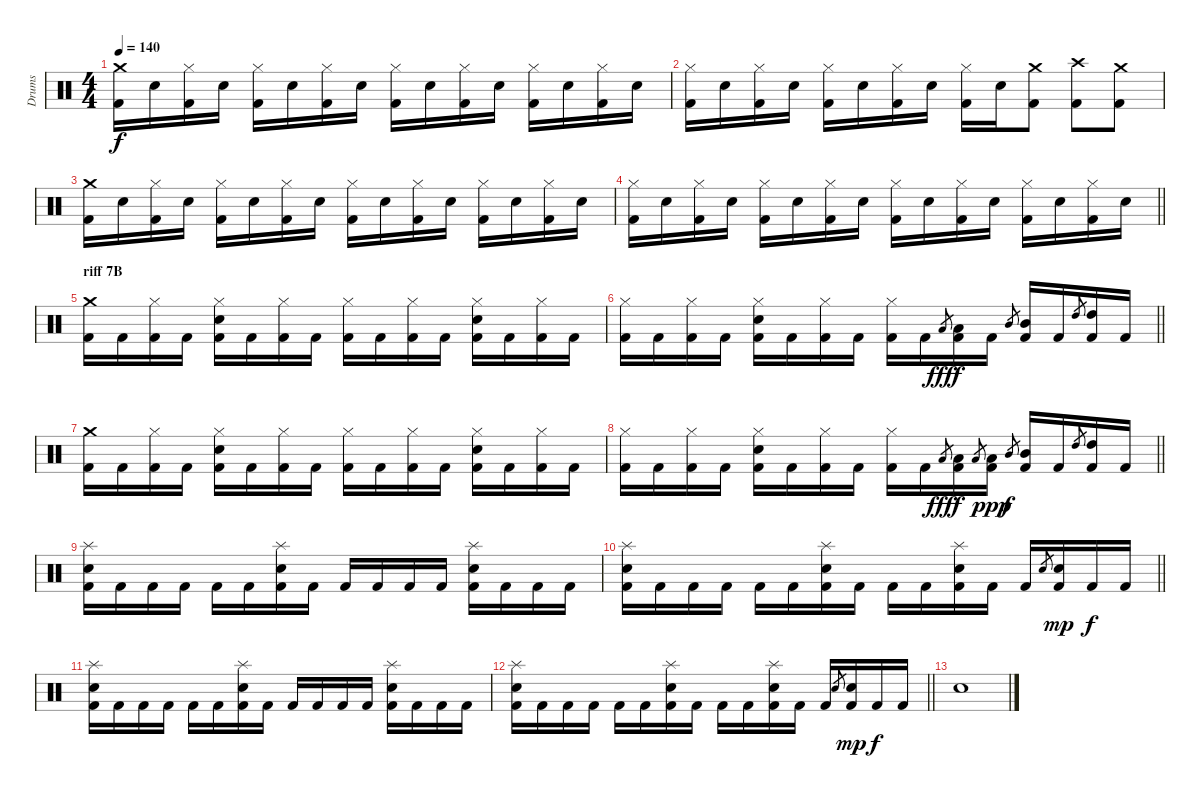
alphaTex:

\track ("Drums" "Drums") {instrument percussion}
\staff {score}
\articulation defaults
\ts (4 4)
\tempo 140
\clef neutral
\ks c
("Kick (hit) 2" "Crash medium (hit)").16{dy f} "Snare (hit) 2".16 ("Kick (hit) 2" "Hi-Hat (closed)").16 "Snare (hit) 2".16 ("Kick (hit) 2" "Hi-Hat (closed)").16 "Snare (hit) 2".16 ("Kick (hit) 2" "Hi-Hat (closed)").16 "Snare (hit) 2".16 ("Kick (hit) 2" "Hi-Hat (closed)").16 "Snare (hit) 2".16 ("Kick (hit) 2" "Hi-Hat (closed)").16 "Snare (hit) 2".16 ("Kick (hit) 2" "Hi-Hat (closed)").16 "Snare (hit) 2".16 ("Kick (hit) 2" "Hi-Hat (closed)").16 "Snare (hit) 2".16 |
("Kick (hit) 2" "Hi-Hat (closed)").16 "Snare (hit) 2".16 ("Kick (hit) 2" "Hi-Hat (closed)").16 "Snare (hit) 2".16 ("Kick (hit) 2" "Hi-Hat (closed)").16 "Snare (hit) 2".16 ("Kick (hit) 2" "Hi-Hat (closed)").16 "Snare (hit) 2".16 ("Kick (hit) 2" "Hi-Hat (closed)").16 "Snare (hit) 2".16 ("Kick (hit) 2" "Crash medium (hit)").8 ("Kick (hit) 2" "Crash high (hit)").8 ("Kick (hit) 2" "Crash medium (hit)").8 |
("Kick (hit) 2" "Crash medium (hit)").16 "Snare (hit) 2".16 ("Kick (hit) 2" "Hi-Hat (closed)").16 "Snare (hit) 2".16 ("Kick (hit) 2" "Hi-Hat (closed)").16 "Snare (hit) 2".16 ("Kick (hit) 2" "Hi-Hat (closed)").16 "Snare (hit) 2".16 ("Kick (hit) 2" "Hi-Hat (closed)").16 "Snare (hit) 2".16 ("Kick (hit) 2" "Hi-Hat (closed)").16 "Snare (hit) 2".16 ("Kick (hit) 2" "Hi-Hat (closed)").16 "Snare (hit) 2".16 ("Kick (hit) 2" "Hi-Hat (closed)").16 "Snare (hit) 2".16 |
\barLineRight lightlight
("Kick (hit) 2" "Hi-Hat (closed)").16 "Snare (hit) 2".16 ("Kick (hit) 2" "Hi-Hat (closed)").16 "Snare (hit) 2".16 ("Kick (hit) 2" "Hi-Hat (closed)").16 "Snare (hit) 2".16 ("Kick (hit) 2" "Hi-Hat (closed)").16 "Snare (hit) 2".16 ("Kick (hit) 2" "Hi-Hat (closed)").16 "Snare (hit) 2".16 ("Kick (hit) 2" "Hi-Hat (closed)").16 "Snare (hit) 2".16 ("Kick (hit) 2" "Hi-Hat (closed)").16 "Snare (hit) 2".16 ("Kick (hit) 2" "Hi-Hat (closed)").16 "Snare (hit) 2".16 |
\section ("" "riff 7B")
("Kick (hit) 2" "Crash medium (hit)").16 "Kick (hit) 2".16 ("Kick (hit) 2" "Hi-Hat (closed)").16 "Kick (hit) 2".16 ("Kick (hit) 2" "Snare (hit) 2" "Hi-Hat (closed)").16 "Kick (hit) 2".16 ("Kick (hit) 2" "Hi-Hat (closed)").16 "Kick (hit) 2".16 ("Kick (hit) 2" "Hi-Hat (closed)").16 "Kick (hit) 2".16 ("Kick (hit) 2" "Hi-Hat (closed)").16 "Kick (hit) 2".16 ("Kick (hit) 2" "Snare (hit) 2" "Hi-Hat (closed)").16 "Kick (hit) 2".16 ("Kick (hit) 2" "Hi-Hat (closed)").16 "Kick (hit) 2".16 |
\barLineRight lightlight
("Kick (hit) 2" "Hi-Hat (closed)").16 "Kick (hit) 2".16 ("Kick (hit) 2" "Hi-Hat (closed)").16 "Kick (hit) 2".16 ("Kick (hit) 2" "Snare (hit) 2" "Hi-Hat (closed)").16 "Kick (hit) 2".16 ("Kick (hit) 2" "Hi-Hat (closed)").16 "Kick (hit) 2".16 ("Kick (hit) 2" "Hi-Hat (closed)").16 "Kick (hit) 2".16 "Low Tom (hit)".8{gr dy fff} ("Kick (hit) 2" "Low Tom (hit)").16{dy f} "Kick (hit) 2".16 "Mid Tom (hit)".8{gr} ("Kick (hit) 2" "Mid Tom (hit)").16 "Kick (hit) 2".16 "High Tom (hit)".8{gr} ("Kick (hit) 2" "High Tom (hit)").16 "Kick (hit) 2".16 |
("Kick (hit) 2" "Crash medium (hit)").16 "Kick (hit) 2".16 ("Kick (hit) 2" "Hi-Hat (closed)").16 "Kick (hit) 2".16 ("Kick (hit) 2" "Snare (hit) 2" "Hi-Hat (closed)").16 "Kick (hit) 2".16 ("Kick (hit) 2" "Hi-Hat (closed)").16 "Kick (hit) 2".16 ("Kick (hit) 2" "Hi-Hat (closed)").16 "Kick (hit) 2".16 ("Kick (hit) 2" "Hi-Hat (closed)").16 "Kick (hit) 2".16 ("Kick (hit) 2" "Snare (hit) 2" "Hi-Hat (closed)").16 "Kick (hit) 2".16 ("Kick (hit) 2" "Hi-Hat (closed)").16 "Kick (hit) 2".16 |
\barLineRight lightlight
("Kick (hit) 2" "Hi-Hat (closed)").16 "Kick (hit) 2".16 ("Kick (hit) 2" "Hi-Hat (closed)").16 "Kick (hit) 2".16 ("Kick (hit) 2" "Snare (hit) 2" "Hi-Hat (closed)").16 "Kick (hit) 2".16 ("Kick (hit) 2" "Hi-Hat (closed)").16 "Kick (hit) 2".16 ("Kick (hit) 2" "Hi-Hat (closed)").16 "Kick (hit) 2".16 "Low Tom (hit)".8{gr dy fff} ("Kick (hit) 2" "Low Tom (hit)").16{dy f} "Low Tom (hit)".8{gr} ("Kick (hit) 2" "Low Tom (hit)").16{dy ppp} "Mid Tom (hit)".8{gr dy f} ("Kick (hit) 2" "Mid Tom (hit)").16 "Kick (hit) 2".16 "High Tom (hit)".8{gr} ("Kick (hit) 2" "High Tom (hit)").16 "Kick (hit) 2".16 |
("Kick (hit) 2" "Snare (hit) 2" "Splash (hit)").16 "Kick (hit) 2".16 "Kick (hit) 2".16 "Kick (hit) 2".16 "Kick (hit) 2".16 "Kick (hit) 2".16 ("Kick (hit) 2" "Snare (hit) 2" "Splash (hit)").16 "Kick (hit) 2".16 "Kick (hit) 2".16 "Kick (hit) 2".16 "Kick (hit) 2".16 "Kick (hit) 2".16 ("Kick (hit) 2" "Snare (hit) 2" "Splash (hit)").16 "Kick (hit) 2".16 "Kick (hit) 2".16 "Kick (hit) 2".16 |
\barLineRight lightlight
("Kick (hit) 2" "Snare (hit) 2" "Splash (hit)").16 "Kick (hit) 2".16 "Kick (hit) 2".16 "Kick (hit) 2".16 "Kick (hit) 2".16 "Kick (hit) 2".16 ("Kick (hit) 2" "Snare (hit) 2" "Splash (hit)").16 "Kick (hit) 2".16 "Kick (hit) 2".16 "Kick (hit) 2".16 ("Kick (hit) 2" "Snare (hit) 2" "Splash (hit)").16 "Kick (hit) 2".16 "Kick (hit) 2".16 "Snare (hit) 2".8{gr} ("Kick (hit) 2" "Snare (hit) 2").16{dy mp} "Kick (hit) 2".16{dy f} "Kick (hit) 2".16 |
("Kick (hit) 2" "Snare (hit) 2" "Splash (hit)").16 "Kick (hit) 2".16 "Kick (hit) 2".16 "Kick (hit) 2".16 "Kick (hit) 2".16 "Kick (hit) 2".16 ("Kick (hit) 2" "Snare (hit) 2" "Splash (hit)").16 "Kick (hit) 2".16 "Kick (hit) 2".16 "Kick (hit) 2".16 "Kick (hit) 2".16 "Kick (hit) 2".16 ("Kick (hit) 2" "Snare (hit) 2" "Splash (hit)").16 "Kick (hit) 2".16 "Kick (hit) 2".16 "Kick (hit) 2".16 |
\barLineRight lightlight
("Kick (hit) 2" "Snare (hit) 2" "Splash (hit)").16 "Kick (hit) 2".16 "Kick (hit) 2".16 "Kick (hit) 2".16 "Kick (hit) 2".16 "Kick (hit) 2".16 ("Kick (hit) 2" "Snare (hit) 2" "Splash (hit)").16 "Kick (hit) 2".16 "Kick (hit) 2".16 "Kick (hit) 2".16 ("Kick (hit) 2" "Snare (hit) 2" "Splash (hit)").16 "Kick (hit) 2".16 "Kick (hit) 2".16 "Snare (hit) 2".8{gr} ("Kick (hit) 2" "Snare (hit) 2").16{dy mp} "Kick (hit) 2".16{dy f} "Kick (hit) 2".16 |
"Snare (hit) 2".1
